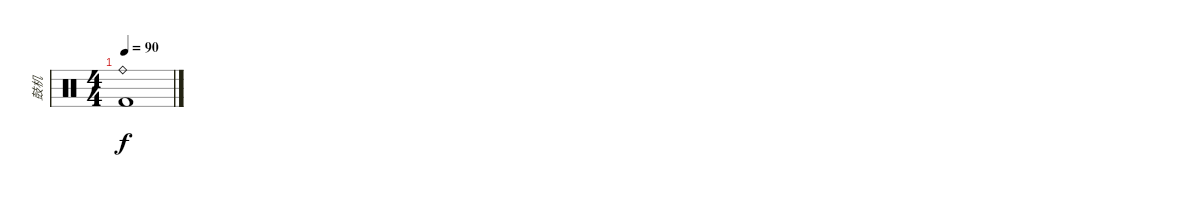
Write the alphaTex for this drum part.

\track ("鼓机" "鼓机") {instrument percussion}
\staff {score}
\articulation defaults
\ts (4 4)
\tempo 90
\clef neutral
\ks c
("Ride (bell)" "Kick (hit) 2").1{dy f}
